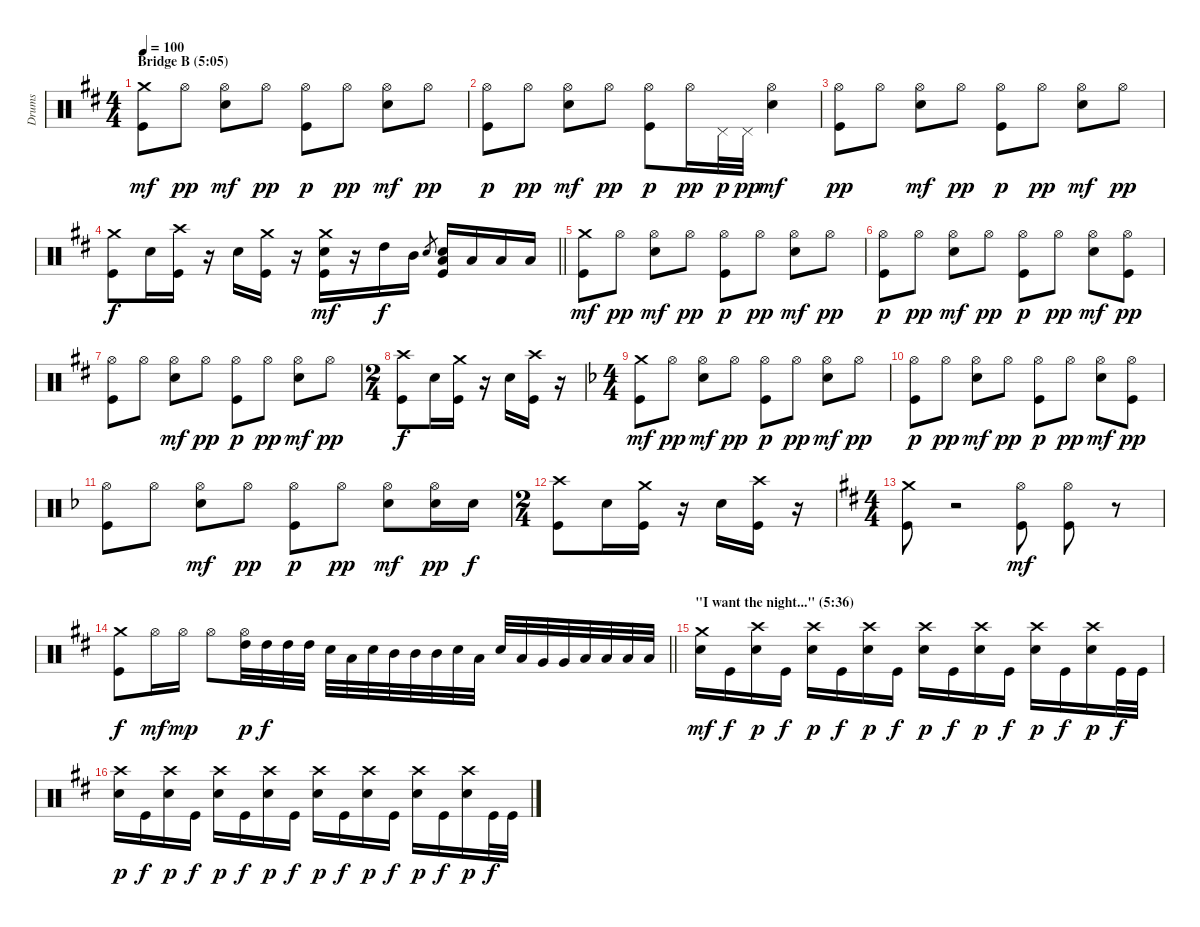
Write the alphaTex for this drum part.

\track ("Drums" "Drums") {instrument percussion}
\staff {score}
\articulation defaults
\ts (4 4)
\section ("" "Bridge B (5:05)")
\tempo 100
\clef neutral
\ks bminor
("Crash medium (hit)" "Kick (hit)").8{dy mf} "Hi-Hat (open)".8{dy pp} ("Hi-Hat (open)" "Snare (hit) 2").8{dy mf} "Hi-Hat (open)".8{dy pp} ("Hi-Hat (open)" "Kick (hit)").8{dy p} "Hi-Hat (open)".8{dy pp} ("Hi-Hat (open)" "Snare (hit) 2").8{dy mf} "Hi-Hat (open)".8{dy pp} |
("Hi-Hat (open)" "Kick (hit)").8{dy p} "Hi-Hat (open)".8{dy pp} ("Hi-Hat (open)" "Snare (hit) 2").8{dy mf} "Hi-Hat (open)".8{dy pp} ("Hi-Hat (open)" "Kick (hit)").8{dy p} "Hi-Hat (open)".16{dy pp} "Pedal Hi-Hat (hit)".32{dy p} "Pedal Hi-Hat (hit)".32{dy pp} ("Hi-Hat (open)" "Snare (hit) 2").4{dy mf} |
("Hi-Hat (open)" "Kick (hit)").8{dy pp} "Hi-Hat (open)".8 ("Hi-Hat (open)" "Snare (hit) 2").8{dy mf} "Hi-Hat (open)".8{dy pp} ("Hi-Hat (open)" "Kick (hit)").8{dy p} "Hi-Hat (open)".8{dy pp} ("Hi-Hat (open)" "Snare (hit) 2").8{dy mf} "Hi-Hat (open)".8{dy pp} |
\barLineRight lightlight
("Crash medium (hit)" "Kick (hit)").8{dy f} "Snare (hit) 2".16 ("Crash high (hit)" "Kick (hit)").16 r.16 "Snare (hit) 2".16 ("Crash medium (hit)" "Kick (hit)").16 r.16 ("Crash medium (hit)" "Snare (hit) 2" "Kick (hit)").16{dy mf} r.16 "High Tom (hit)".16{dy f} "Mid Tom (hit)".16 "Snare (hit) 2".8{gr} ("Low Floor Tom (hit)" "Snare (hit) 2" "Kick (hit)").16 "Low Tom (hit)".16 "Low Tom (hit)".16 "Low Tom (hit)".16 |
("Crash medium (hit)" "Kick (hit)").8{dy mf} "Hi-Hat (open)".8{dy pp} ("Hi-Hat (open)" "Snare (hit) 2").8{dy mf} "Hi-Hat (open)".8{dy pp} ("Hi-Hat (open)" "Kick (hit)").8{dy p} "Hi-Hat (open)".8{dy pp} ("Hi-Hat (open)" "Snare (hit) 2").8{dy mf} "Hi-Hat (open)".8{dy pp} |
("Hi-Hat (open)" "Kick (hit)").8{dy p} "Hi-Hat (open)".8{dy pp} ("Hi-Hat (open)" "Snare (hit) 2").8{dy mf} "Hi-Hat (open)".8{dy pp} ("Hi-Hat (open)" "Kick (hit)").8{dy p} "Hi-Hat (open)".8{dy pp} ("Hi-Hat (open)" "Snare (hit) 2").8{dy mf} ("Hi-Hat (open)" "Kick (hit)").8{dy pp} |
("Hi-Hat (open)" "Kick (hit)").8 "Hi-Hat (open)".8 ("Hi-Hat (open)" "Snare (hit) 2").8{dy mf} "Hi-Hat (open)".8{dy pp} ("Hi-Hat (open)" "Kick (hit)").8{dy p} "Hi-Hat (open)".8{dy pp} ("Hi-Hat (open)" "Snare (hit) 2").8{dy mf} "Hi-Hat (open)".8{dy pp} |
\ts (2 4)
("Crash high (hit)" "Kick (hit)").8{dy f} "Snare (hit) 2".16 ("Crash medium (hit)" "Kick (hit)").16 r.16 "Snare (hit) 2".16 ("Crash high (hit)" "Kick (hit)").16 r.16 |
\ts (4 4)
\ks dminor
("Crash medium (hit)" "Kick (hit)").8{dy mf} "Hi-Hat (open)".8{dy pp} ("Hi-Hat (open)" "Snare (hit) 2").8{dy mf} "Hi-Hat (open)".8{dy pp} ("Hi-Hat (open)" "Kick (hit)").8{dy p} "Hi-Hat (open)".8{dy pp} ("Hi-Hat (open)" "Snare (hit) 2").8{dy mf} "Hi-Hat (open)".8{dy pp} |
("Hi-Hat (open)" "Kick (hit)").8{dy p} "Hi-Hat (open)".8{dy pp} ("Hi-Hat (open)" "Snare (hit) 2").8{dy mf} "Hi-Hat (open)".8{dy pp} ("Hi-Hat (open)" "Kick (hit)").8{dy p} "Hi-Hat (open)".8{dy pp} ("Hi-Hat (open)" "Snare (hit) 2").8{dy mf} ("Hi-Hat (open)" "Kick (hit)").8{dy pp} |
("Hi-Hat (open)" "Kick (hit)").8 "Hi-Hat (open)".8 ("Hi-Hat (open)" "Snare (hit) 2").8{dy mf} "Hi-Hat (open)".8{dy pp} ("Hi-Hat (open)" "Kick (hit)").8{dy p} "Hi-Hat (open)".8{dy pp} ("Hi-Hat (open)" "Snare (hit) 2").8{dy mf} ("Hi-Hat (open)" "Snare (hit) 2").16{dy pp} "Snare (hit) 2".16{dy f} |
\ts (2 4)
("Crash high (hit)" "Kick (hit)").8 "Snare (hit) 2".16 ("Crash medium (hit)" "Kick (hit)").16 r.16 "Snare (hit) 2".16 ("Crash high (hit)" "Kick (hit)").16 r.16 |
\ts (4 4)
\ks bminor
("Crash medium (hit)" "Kick (hit)").8 r.2 ("Hi-Hat (open)" "Kick (hit)").8{dy mf} ("Hi-Hat (open)" "Kick (hit)").8 r.8 |
\barLineRight lightlight
("Crash medium (hit)" "Kick (hit)").8{dy f} "Hi-Hat (open)".16{dy mf} "Hi-Hat (open)".16{dy mp} "Hi-Hat (open)".8 ("Hi-Hat (open)" "High Tom (hit)").32{dy p} "High Tom (hit)".32{dy f} "High Tom (hit)".32 "High Tom (hit)".32 "Snare (hit) 2".32 "Low Tom (hit)".32 "Snare (hit) 2".32 "Mid Tom (hit)".32 "Mid Tom (hit)".32 "Mid Tom (hit)".32 "Snare (hit) 2".32 "Low Tom (hit)".32 "Snare (hit) 2".32 "Low Tom (hit)".32 "Very Low Tom (hit)".32 "Very Low Tom (hit)".32 "Low Floor Tom (hit)".32 "Low Floor Tom (hit)".32 "Low Floor Tom (hit)".32 "Low Floor Tom (hit)".32 |
\section ("" "\"I want the night...\" (5:36)")
("Crash medium (hit)" "Snare (hit) 2").16{dy mf} "Kick (hit)".16{dy f} ("Crash high (hit)" "Snare (hit) 2").16{dy p} "Kick (hit)".16{dy f} ("Crash high (hit)" "Snare (hit) 2").16{dy p} "Kick (hit)".16{dy f} ("Crash high (hit)" "Snare (hit) 2").16{dy p} "Kick (hit)".16{dy f} ("Crash high (hit)" "Snare (hit) 2").16{dy p} "Kick (hit)".16{dy f} ("Crash high (hit)" "Snare (hit) 2").16{dy p} "Kick (hit)".16{dy f} ("Crash high (hit)" "Snare (hit) 2").16{dy p} "Kick (hit)".16{dy f} ("Crash high (hit)" "Snare (hit) 2").16{dy p} "Kick (hit)".32{dy f} "Kick (hit)".32 |
("Crash high (hit)" "Snare (hit) 2").16{dy p} "Kick (hit)".16{dy f} ("Crash high (hit)" "Snare (hit) 2").16{dy p} "Kick (hit)".16{dy f} ("Crash high (hit)" "Snare (hit) 2").16{dy p} "Kick (hit)".16{dy f} ("Crash high (hit)" "Snare (hit) 2").16{dy p} "Kick (hit)".16{dy f} ("Crash high (hit)" "Snare (hit) 2").16{dy p} "Kick (hit)".16{dy f} ("Crash high (hit)" "Snare (hit) 2").16{dy p} "Kick (hit)".16{dy f} ("Crash high (hit)" "Snare (hit) 2").16{dy p} "Kick (hit)".16{dy f} ("Crash high (hit)" "Snare (hit) 2").16{dy p} "Kick (hit)".32{dy f} "Kick (hit)".32
